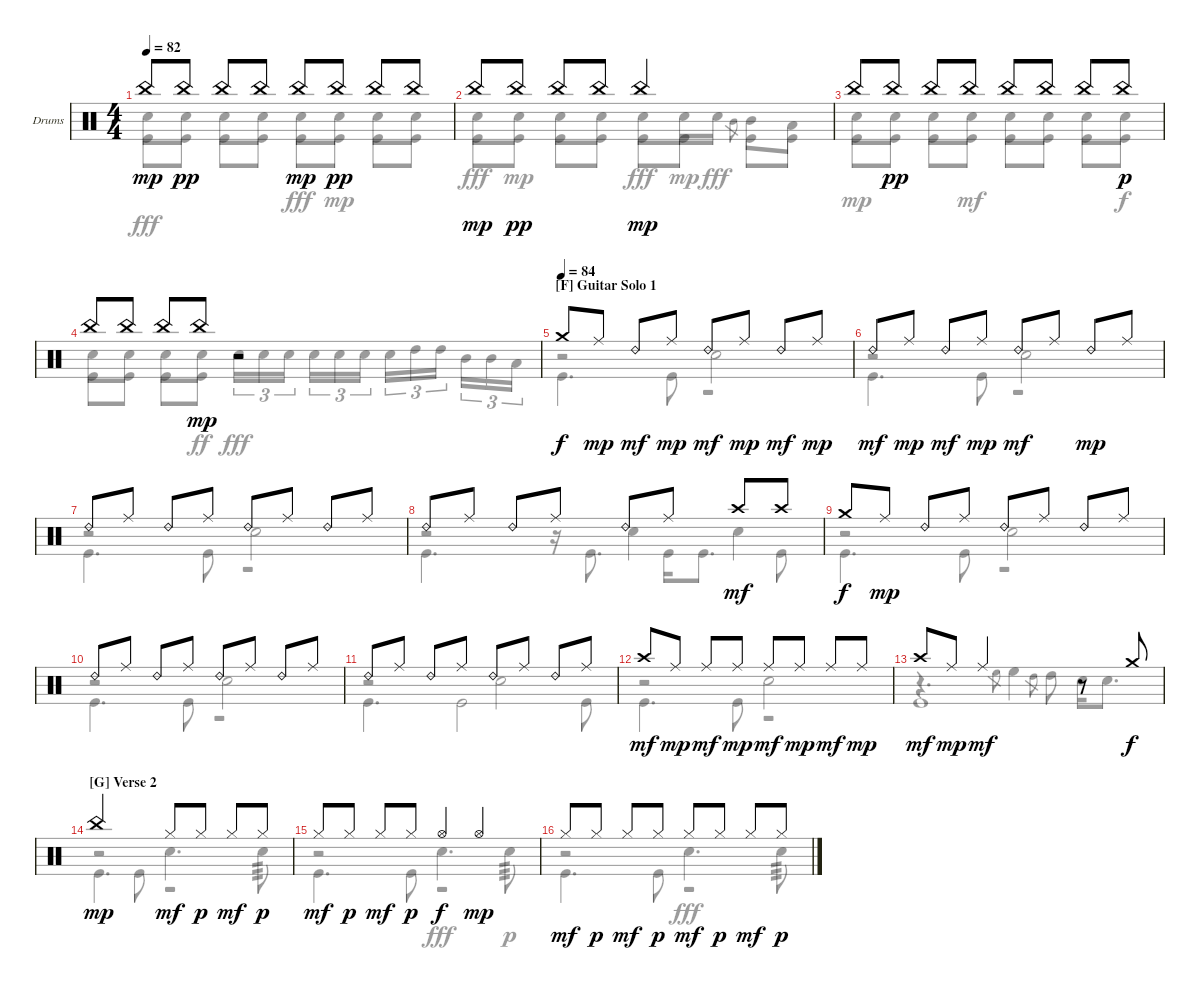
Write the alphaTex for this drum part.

\defaultSystemsLayout 4
\bracketExtendMode groupsimilarinstruments
\firstSystemTrackNameOrientation horizontal
\otherSystemsTrackNameOrientation horizontal
\track ("Drumkit" "Drums") {instrument percussion}
\staff {score}
\articulation defaults
\voice
\ts (4 4)
\tempo 82
\clef neutral
\ks c "China (hit)".8{dy mp} "China (hit)".8{dy pp} "China (hit)".8 "China (hit)".8 "China (hit)".8{dy mp} "China (hit)".8{dy pp} "China (hit)".8 "China (hit)".8
|
"China (hit)".8{dy mp} "China (hit)".8{dy pp} "China (hit)".8 "China (hit)".8 "China (hit)".2{dy mp} |
"China (hit)".8 "China (hit)".8{dy pp} "China (hit)".8 "China (hit)".8 "China (hit)".8 "China (hit)".8 "China (hit)".8 "China (hit)".8{dy p} |
"China (hit)".8 "China (hit)".8 "China (hit)".8 "China (hit)".8{dy mp} r.2 |
\section ("F" "Guitar Solo 1")
\tempo (84)
"Crash medium (hit)".8{dy f} "Ride (middle)".8{dy mp} "Ride (bell) 2".8{dy mf} "Ride (middle)".8{dy mp} "Ride (bell) 2".8{dy mf} "Ride (middle)".8{dy mp} "Ride (bell) 2".8{dy mf} "Ride (middle)".8{dy mp} |
"Ride (bell) 2".8{dy mf} "Ride (middle)".8{dy mp} "Ride (bell) 2".8{dy mf} "Ride (middle)".8{dy mp} "Ride (bell) 2".8{dy mf} "Ride (middle)".8 "Ride (bell) 2".8{dy mp} "Ride (middle)".8 |
"Ride (bell) 2".8 "Ride (middle)".8 "Ride (bell) 2".8 "Ride (middle)".8 "Ride (bell) 2".8 "Ride (middle)".8 "Ride (bell) 2".8 "Ride (middle)".8 |
"Ride (bell) 2".8 "Ride (middle)".8 "Ride (bell) 2".8 "Ride (middle)".8 "Ride (bell) 2".8 "Ride (middle)".8 "Crash high (hit)".8{dy mf} "Crash high (hit)".8 |
"Crash medium (hit)".8{dy f} "Ride (middle)".8{dy mp} "Ride (bell) 2".8 "Ride (middle)".8 "Ride (bell) 2".8 "Ride (middle)".8 "Ride (bell) 2".8 "Ride (middle)".8 |
"Ride (bell) 2".8 "Ride (middle)".8 "Ride (bell) 2".8 "Ride (middle)".8 "Ride (bell) 2".8 "Ride (middle)".8 "Ride (bell) 2".8 "Ride (middle)".8 |
"Ride (bell) 2".8 "Ride (middle)".8 "Ride (bell) 2".8 "Ride (middle)".8 "Ride (bell) 2".8 "Ride (middle)".8 "Ride (bell) 2".8 "Ride (middle)".8 |
"Crash high (hit)".8{dy mf} "Ride (middle)".8{dy mp} "Ride (middle)".8{dy mf} "Ride (middle)".8{dy mp} "Ride (middle)".8{dy mf} "Ride (middle)".8{dy mp} "Ride (middle)".8{dy mf} "Ride (middle)".8{dy mp} |
"Crash high (hit)".8{dy mf} "Ride (middle)".8{dy mp} "Ride (middle)".2{dy mf} r.8 "Crash medium (hit)".8{dy f} |
\section ("G" "Verse 2")
"China (hit)".2{dy mp} "Hi-Hat (closed)".8{dy mf} "Hi-Hat (closed)".8{dy p} "Hi-Hat (closed)".8{dy mf} "Hi-Hat (closed)".8{dy p} |
"Hi-Hat (closed)".8{dy mf} "Hi-Hat (closed)".8{dy p} "Hi-Hat (closed)".8{dy mf} "Hi-Hat (closed)".8{dy p} "Hi-Hat (open)".4{dy f} "Hi-Hat (open)".4{dy mp} |
"Hi-Hat (closed)".8{dy mf} "Hi-Hat (closed)".8{dy p} "Hi-Hat (closed)".8{dy mf} "Hi-Hat (closed)".8{dy p} "Hi-Hat (closed)".8{dy mf} "Hi-Hat (closed)".8{dy p} "Hi-Hat (closed)".8{dy mf} "Hi-Hat (closed)".8{dy p}
\voice
\clef neutral
\ottava regular
\simile none
\ks c "Snare (hit) 2".8{dy mp} "Snare (hit) 2".8 "Snare (hit) 2".8 "Snare (hit) 2".8 "Snare (hit) 2".8{dy fff} "Snare (hit) 2".8{dy mp} "Snare (hit) 2".8 "Snare (hit) 2".8
|
"Snare (hit) 2".8{dy fff} "Snare (hit) 2".8{dy mp} "Snare (hit) 2".8 "Snare (hit) 2".8 "Snare (hit) 2".8{dy fff} "Snare (hit) 2".16{dy mp} "Snare (hit) 2".16{dy fff} "Mid Tom (hit)".8{gr} "Mid Tom (hit)".8 "Low Tom (hit)".8 |
"Snare (hit) 2".8{dy mp} "Snare (hit) 2".8 "Snare (hit) 2".8 "Snare (hit) 2".8{dy mf} "Snare (hit) 2".8 "Snare (hit) 2".8 "Snare (hit) 2".8 "Snare (hit) 2".8{dy f} |
"Snare (hit) 2".8 "Snare (hit) 2".8 "Snare (hit) 2".8 "Snare (hit) 2".8{dy ff} "Snare (hit) 2".16{tu (3 2) dy fff} "Snare (hit) 2".16{tu (3 2)} "Snare (hit) 2".16{tu (3 2)} "Snare (hit) 2".16{tu (3 2)} "Snare (hit) 2".16{tu (3 2)} "Snare (hit) 2".16{tu (3 2)} "Snare (hit) 2".16{tu (3 2)} "High Tom (hit)".16{tu (3 2)} "High Tom (hit)".16{tu (3 2)} "Mid Tom (hit)".16{tu (3 2)} "Mid Tom (hit)".16{tu (3 2)} "Low Tom (hit)".16{tu (3 2)} |
r.2 "Snare (hit) 2".2 |
r.2 "Snare (hit) 2".2 |
r.2 "Snare (hit) 2".2 |
r.2 "Snare (hit) 2".4 "Snare (hit) 2".4 |
r.2 "Snare (hit) 2".2 |
r.2 "Snare (hit) 2".2 |
r.2 "Snare (hit) 2".2 |
r.2 "Snare (hit) 2".2 |
r.4{d} "High Floor Tom (hit)".8{gr} "High Floor Tom (hit)".4 "High Tom (hit)".8{gr} "High Tom (hit)".8 "Snare (hit) 2".16 "Snare (hit) 2".8{d} |
r.2 "Snare (hit) 2".4{d} "Snare (hit) 2".8{tp 3 dy p} |
r.2 "Snare (hit) 2".4{d dy fff} "Snare (hit) 2".8{tp 3 dy p} |
r.2 "Snare (hit) 2".4{d dy fff} "Snare (hit) 2".8{tp 3 dy p}
\voice
\clef neutral
\ottava regular
\simile none
\ks c "Kick (hit)".8{dy fff} "Kick (hit)".8 "Kick (hit)".8 "Kick (hit)".8 "Kick (hit)".8 "Kick (hit)".8 "Kick (hit)".8 "Kick (hit)".8
|
"Kick (hit)".8 "Kick (hit)".8 "Kick (hit)".8 "Kick (hit)".8 "Kick (hit)".8 "Kick (hit)".8 "Kick (hit)".8 "Kick (hit)".8 |
"Kick (hit)".8 "Kick (hit)".8 "Kick (hit)".8 "Kick (hit)".8 "Kick (hit)".8 "Kick (hit)".8 "Kick (hit)".8 "Kick (hit)".8 |
"Kick (hit)".8 "Kick (hit)".8 "Kick (hit)".8 "Kick (hit)".8 r.2 |
"Kick (hit)".4{d} "Kick (hit)".8 r.2 |
"Kick (hit)".4{d} "Kick (hit)".8 r.2 |
"Kick (hit)".4{d} "Kick (hit)".8 r.2 |
"Kick (hit)".4{d} r.16 "Kick (hit)".8{d} "Kick (hit)".16 "Kick (hit)".8{d} "Kick (hit)".8 |
"Kick (hit)".4{d} "Kick (hit)".8 r.2 |
"Kick (hit)".4{d} "Kick (hit)".8 r.2 |
"Kick (hit)".4{d} "Kick (hit)".2 "Kick (hit)".8 |
"Kick (hit)".4{d} "Kick (hit)".8 r.2 |
"Kick (hit)".1 |
"Kick (hit)".4{d} "Kick (hit)".8 r.2 |
"Kick (hit)".4{d} "Kick (hit)".8 r.2 |
"Kick (hit)".4{d} "Kick (hit)".8 r.2
